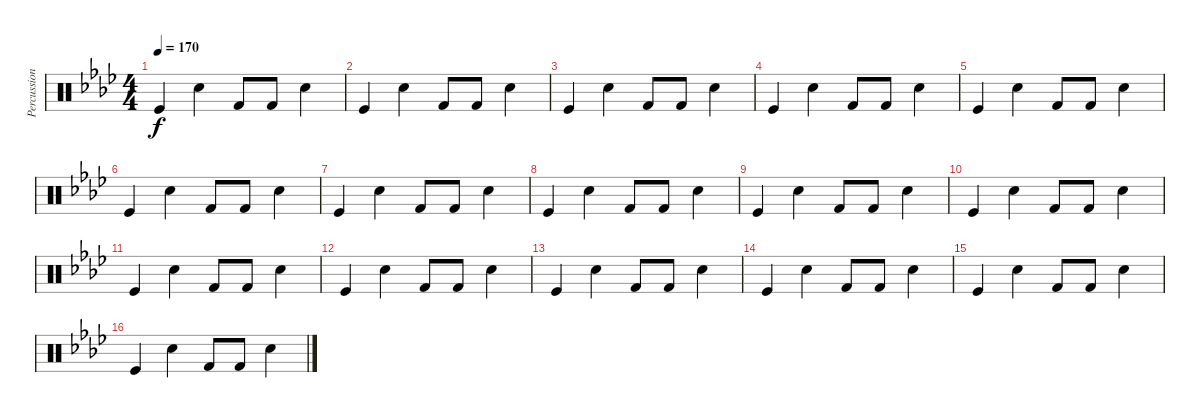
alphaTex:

\track ("Percussions" "Percussion") {instrument percussion}
\staff {score}
\articulation defaults
\ts (4 4)
\tempo 170
\clef neutral
\ks ab "Kick (hit)".4{dy f} "Snare (hit) 2".4 "Kick (hit) 2".8 "Kick (hit) 2".8 "Snare (hit) 2".4
|
"Kick (hit)".4 "Snare (hit) 2".4 "Kick (hit) 2".8 "Kick (hit) 2".8 "Snare (hit) 2".4 |
"Kick (hit)".4 "Snare (hit) 2".4 "Kick (hit) 2".8 "Kick (hit) 2".8 "Snare (hit) 2".4 |
"Kick (hit)".4 "Snare (hit) 2".4 "Kick (hit) 2".8 "Kick (hit) 2".8 "Snare (hit) 2".4 |
"Kick (hit)".4 "Snare (hit) 2".4 "Kick (hit) 2".8 "Kick (hit) 2".8 "Snare (hit) 2".4 |
"Kick (hit)".4 "Snare (hit) 2".4 "Kick (hit) 2".8 "Kick (hit) 2".8 "Snare (hit) 2".4 |
"Kick (hit)".4 "Snare (hit) 2".4 "Kick (hit) 2".8 "Kick (hit) 2".8 "Snare (hit) 2".4 |
"Kick (hit)".4 "Snare (hit) 2".4 "Kick (hit) 2".8 "Kick (hit) 2".8 "Snare (hit) 2".4 |
"Kick (hit)".4 "Snare (hit) 2".4 "Kick (hit) 2".8 "Kick (hit) 2".8 "Snare (hit) 2".4 |
"Kick (hit)".4 "Snare (hit) 2".4 "Kick (hit) 2".8 "Kick (hit) 2".8 "Snare (hit) 2".4 |
"Kick (hit)".4 "Snare (hit) 2".4 "Kick (hit) 2".8 "Kick (hit) 2".8 "Snare (hit) 2".4 |
"Kick (hit)".4 "Snare (hit) 2".4 "Kick (hit) 2".8 "Kick (hit) 2".8 "Snare (hit) 2".4 |
"Kick (hit)".4 "Snare (hit) 2".4 "Kick (hit) 2".8 "Kick (hit) 2".8 "Snare (hit) 2".4 |
"Kick (hit)".4 "Snare (hit) 2".4 "Kick (hit) 2".8 "Kick (hit) 2".8 "Snare (hit) 2".4 |
"Kick (hit)".4 "Snare (hit) 2".4 "Kick (hit) 2".8 "Kick (hit) 2".8 "Snare (hit) 2".4 |
"Kick (hit)".4 "Snare (hit) 2".4 "Kick (hit) 2".8 "Kick (hit) 2".8 "Snare (hit) 2".4
